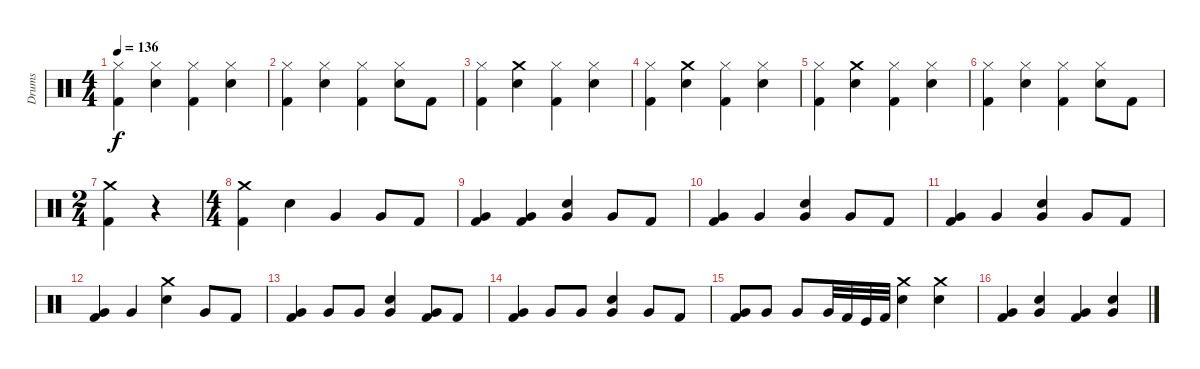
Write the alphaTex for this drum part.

\track ("Drums" "Drums") {instrument percussion}
\staff {score}
\articulation defaults
\ts (4 4)
\tempo 136
\clef neutral
\ks c
("Hi-Hat (closed)" "Kick (hit) 2").4{dy f} ("Snare (hit) 2" "Hi-Hat (closed)").4 ("Kick (hit) 2" "Hi-Hat (closed)").4 ("Snare (hit) 2" "Hi-Hat (closed)").4 |
("Kick (hit) 2" "Hi-Hat (closed)").4 ("Snare (hit) 2" "Hi-Hat (closed)").4 ("Kick (hit) 2" "Hi-Hat (closed)").4 ("Snare (hit) 2" "Hi-Hat (closed)").8 "Kick (hit) 2".8 |
("Kick (hit) 2" "Hi-Hat (closed)").4 ("Crash medium (hit)" "Snare (hit) 2").4 ("Hi-Hat (closed)" "Kick (hit) 2").4 ("Snare (hit) 2" "Hi-Hat (closed)").4 |
("Kick (hit) 2" "Hi-Hat (closed)").4 ("Crash medium (hit)" "Snare (hit) 2").4 ("Hi-Hat (closed)" "Kick (hit) 2").4 ("Snare (hit) 2" "Hi-Hat (closed)").4 |
("Kick (hit) 2" "Hi-Hat (closed)").4 ("Crash medium (hit)" "Snare (hit) 2").4 ("Hi-Hat (closed)" "Kick (hit) 2").4 ("Snare (hit) 2" "Hi-Hat (closed)").4 |
("Kick (hit) 2" "Hi-Hat (closed)").4 ("Hi-Hat (closed)" "Snare (hit) 2").4 ("Hi-Hat (closed)" "Kick (hit) 2").4 ("Hi-Hat (closed)" "Snare (hit) 2").8 "Kick (hit) 2".8 |
\ts (2 4)
("Crash medium (hit)" "Kick (hit) 2").4 r.4 |
\ts (4 4)
("Crash medium (hit)" "Kick (hit) 2").4 "Snare (hit) 2".4 "Very Low Tom (hit)".4 "Very Low Tom (hit)".8 "Kick (hit) 2".8 |
("Kick (hit) 2" "Very Low Tom (hit)").4 ("Kick (hit) 2" "Very Low Tom (hit)").4 ("Snare (hit) 2" "Very Low Tom (hit)").4 "Very Low Tom (hit)".8 "Kick (hit) 2".8 |
("Kick (hit) 2" "Very Low Tom (hit)").4 "Very Low Tom (hit)".4 ("Snare (hit) 2" "Very Low Tom (hit)").4 "Very Low Tom (hit)".8 "Kick (hit) 2".8 |
("Kick (hit) 2" "Very Low Tom (hit)").4 "Very Low Tom (hit)".4 ("Snare (hit) 2" "Very Low Tom (hit)").4 "Very Low Tom (hit)".8 "Kick (hit) 2".8 |
("Kick (hit) 2" "Very Low Tom (hit)").4 "Very Low Tom (hit)".4 ("Crash medium (hit)" "Snare (hit) 2").4 "Very Low Tom (hit)".8 "Kick (hit) 2".8 |
("Kick (hit) 2" "Very Low Tom (hit)").4 "Very Low Tom (hit)".8 "Very Low Tom (hit)".8 ("Snare (hit) 2" "Very Low Tom (hit)").4 ("Very Low Tom (hit)" "Kick (hit) 2").8 "Kick (hit) 2".8 |
("Kick (hit) 2" "Very Low Tom (hit)").4 "Very Low Tom (hit)".8 "Very Low Tom (hit)".8 ("Snare (hit) 2" "Very Low Tom (hit)").4 "Very Low Tom (hit)".8 "Kick (hit) 2".8 |
("Kick (hit) 2" "Very Low Tom (hit)").8 "Very Low Tom (hit)".8 "Very Low Tom (hit)".8 "Very Low Tom (hit)".32 "Kick (hit) 2".32 "Kick (hit)".32 "Kick (hit) 2".32 ("Crash medium (hit)" "Snare (hit) 2").4 ("Crash medium (hit)" "Snare (hit) 2").4 |
("Very Low Tom (hit)" "Kick (hit) 2").4 ("Snare (hit) 2" "Very Low Tom (hit)").4 ("Very Low Tom (hit)" "Kick (hit) 2").4 ("Snare (hit) 2" "Very Low Tom (hit)").4
